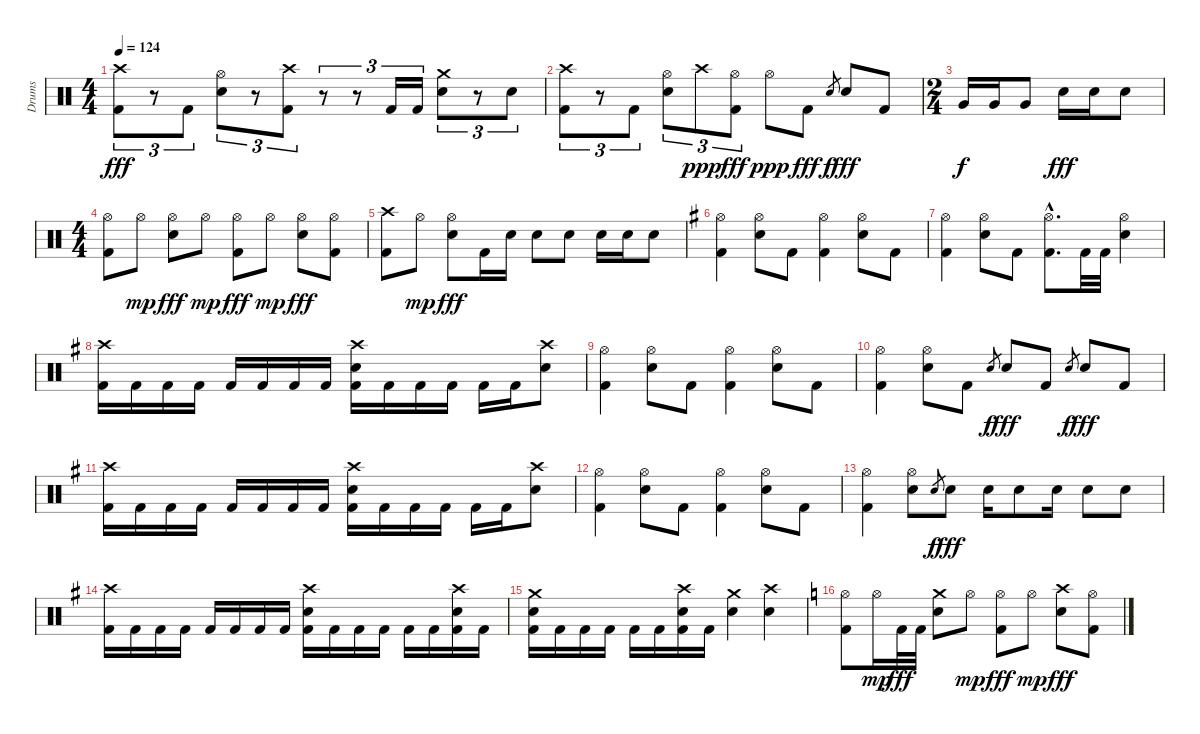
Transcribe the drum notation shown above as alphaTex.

\track ("Drums" "Drums") {instrument percussion}
\staff {score}
\articulation defaults
\ts (4 4)
\tempo 124
\clef neutral
\ks c
("Crash high (hit)" "Kick (hit) 2").8{tu (3 2) dy fff} r.8{tu (3 2)} "Kick (hit) 2".8{tu (3 2)} ("Hi-Hat (open)" "Electric Snare (hit)").8{tu (3 2)} r.8{tu (3 2)} ("Crash high (hit)" "Kick (hit) 2").8{tu (3 2)} r.8{tu (3 2)} r.8{tu (3 2)} "Kick (hit) 2".16{tu (3 2)} "Kick (hit) 2".16{tu (3 2)} ("Crash medium (hit)" "Electric Snare (hit)").8{tu (3 2)} r.8{tu (3 2)} "Electric Snare (hit)".8{tu (3 2)} |
("Crash high (hit)" "Kick (hit) 2").8{tu (3 2)} r.8{tu (3 2)} "Kick (hit) 2".8{tu (3 2)} ("Hi-Hat (open)" "Electric Snare (hit)").8{tu (3 2)} "Crash high (hit)".8{tu (3 2) dy ppp} ("Hi-Hat (open)" "Kick (hit) 2").8{tu (3 2) dy fff} "Hi-Hat (open)".8{dy ppp} "Kick (hit) 2".8{dy fff} "Electric Snare (hit)".8{gr dy f} "Electric Snare (hit)".8{dy fff} "Kick (hit) 2".8 |
\ts (2 4)
"Very Low Tom (hit)".16{dy f} "Very Low Tom (hit)".16 "Very Low Tom (hit)".8 "Electric Snare (hit)".16{dy fff} "Electric Snare (hit)".16 "Electric Snare (hit)".8 |
\ts (4 4)
("Hi-Hat (open)" "Kick (hit) 2").8 "Hi-Hat (open)".8{dy mp} ("Hi-Hat (open)" "Electric Snare (hit)").8{dy fff} "Hi-Hat (open)".8{dy mp} ("Hi-Hat (open)" "Kick (hit) 2").8{dy fff} "Hi-Hat (open)".8{dy mp} ("Hi-Hat (open)" "Electric Snare (hit)").8{dy fff} ("Hi-Hat (open)" "Kick (hit) 2").8 |
("Crash high (hit)" "Kick (hit) 2").8 "Hi-Hat (open)".8{dy mp} ("Hi-Hat (open)" "Electric Snare (hit)").8{dy fff} "Kick (hit) 2".16 "Electric Snare (hit)".16 "Electric Snare (hit)".8 "Electric Snare (hit)".8 "Electric Snare (hit)".16 "Electric Snare (hit)".16 "Electric Snare (hit)".8 |
\ks g
("Hi-Hat (open)" "Kick (hit) 2").4 ("Hi-Hat (open)" "Electric Snare (hit)").8 "Kick (hit) 2".8 ("Hi-Hat (open)" "Kick (hit) 2").4 ("Hi-Hat (open)" "Electric Snare (hit)").8 "Kick (hit) 2".8 |
("Hi-Hat (open)" "Kick (hit) 2").4 ("Hi-Hat (open)" "Electric Snare (hit)").8 "Kick (hit) 2".8 ("Hi-Hat (open)"{hac} "Kick (hit) 2"{hac}).8{d} "Kick (hit) 2".32 "Kick (hit) 2".32 ("Hi-Hat (open)" "Electric Snare (hit)").4 |
("Crash high (hit)" "Kick (hit) 2").16 "Kick (hit) 2".16 "Kick (hit) 2".16 "Kick (hit) 2".16 "Kick (hit) 2".16 "Kick (hit) 2".16 "Kick (hit) 2".16 "Kick (hit) 2".16 ("Crash high (hit)" "Electric Snare (hit)" "Kick (hit) 2").16 "Kick (hit) 2".16 "Kick (hit) 2".16 "Kick (hit) 2".16 "Kick (hit) 2".16 "Kick (hit) 2".16 ("Crash high (hit)" "Electric Snare (hit)").8 |
("Hi-Hat (open)" "Kick (hit) 2").4 ("Hi-Hat (open)" "Electric Snare (hit)").8 "Kick (hit) 2".8 ("Hi-Hat (open)" "Kick (hit) 2").4 ("Hi-Hat (open)" "Electric Snare (hit)").8 "Kick (hit) 2".8 |
("Hi-Hat (open)" "Kick (hit) 2").4 ("Hi-Hat (open)" "Electric Snare (hit)").8 "Kick (hit) 2".8 "Electric Snare (hit)".8{gr dy f} "Electric Snare (hit)".8{dy fff} "Kick (hit) 2".8 "Electric Snare (hit)".8{gr dy f} "Electric Snare (hit)".8{dy fff} "Kick (hit) 2".8 |
("Crash high (hit)" "Kick (hit) 2").16 "Kick (hit) 2".16 "Kick (hit) 2".16 "Kick (hit) 2".16 "Kick (hit) 2".16 "Kick (hit) 2".16 "Kick (hit) 2".16 "Kick (hit) 2".16 ("Crash high (hit)" "Electric Snare (hit)" "Kick (hit) 2").16 "Kick (hit) 2".16 "Kick (hit) 2".16 "Kick (hit) 2".16 "Kick (hit) 2".16 "Kick (hit) 2".16 ("Crash high (hit)" "Electric Snare (hit)").8 |
("Hi-Hat (open)" "Kick (hit) 2").4 ("Hi-Hat (open)" "Electric Snare (hit)").8 "Kick (hit) 2".8 ("Hi-Hat (open)" "Kick (hit) 2").4 ("Hi-Hat (open)" "Electric Snare (hit)").8 "Kick (hit) 2".8 |
("Hi-Hat (open)" "Kick (hit) 2").4 ("Hi-Hat (open)" "Electric Snare (hit)").8 "Electric Snare (hit)".8{gr dy f} "Electric Snare (hit)".8{dy fff} "Electric Snare (hit)".16 "Electric Snare (hit)".8 "Electric Snare (hit)".16 "Electric Snare (hit)".8 "Electric Snare (hit)".8 |
("Crash high (hit)" "Kick (hit) 2").16 "Kick (hit) 2".16 "Kick (hit) 2".16 "Kick (hit) 2".16 "Kick (hit) 2".16 "Kick (hit) 2".16 "Kick (hit) 2".16 "Kick (hit) 2".16 ("Crash high (hit)" "Electric Snare (hit)" "Kick (hit) 2").16 "Kick (hit) 2".16 "Kick (hit) 2".16 "Kick (hit) 2".16 "Kick (hit) 2".16 "Kick (hit) 2".16 ("Crash high (hit)" "Electric Snare (hit)" "Kick (hit) 2").16 "Kick (hit) 2".16 |
("Crash medium (hit)" "Electric Snare (hit)" "Kick (hit) 2").16 "Kick (hit) 2".16 "Kick (hit) 2".16 "Kick (hit) 2".16 "Kick (hit) 2".16 "Kick (hit) 2".16 ("Crash high (hit)" "Electric Snare (hit)" "Kick (hit) 2").16 "Kick (hit) 2".16 ("Crash medium (hit)" "Electric Snare (hit)").4 ("Crash high (hit)" "Electric Snare (hit)").4 |
\ks c
("Hi-Hat (open)" "Kick (hit) 2").8 "Hi-Hat (open)".16{dy mp} "Kick (hit) 2".32{dy fff} "Kick (hit) 2".32 ("Crash medium (hit)" "Electric Snare (hit)").8 "Hi-Hat (open)".8{dy mp} ("Hi-Hat (open)" "Kick (hit) 2").8{dy fff} "Hi-Hat (open)".8{dy mp} ("Crash high (hit)" "Electric Snare (hit)").8{dy fff} ("Hi-Hat (open)" "Kick (hit) 2").8
